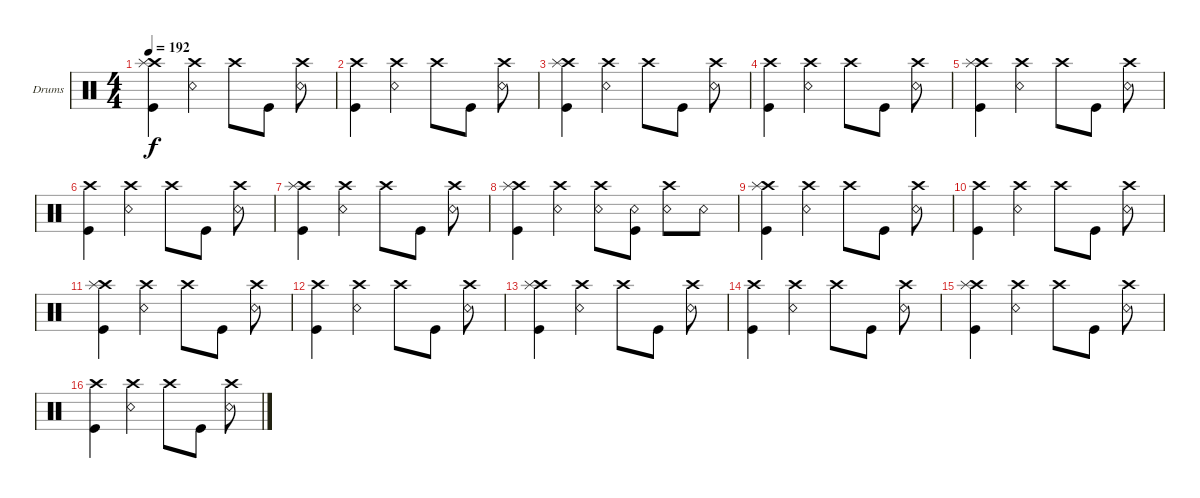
\defaultSystemsLayout 4
\bracketExtendMode groupsimilarinstruments
\firstSystemTrackNameOrientation horizontal
\otherSystemsTrackNameOrientation horizontal
\track ("Drumkit" "Drums") {instrument percussion}
\staff {score}
\articulation defaults
\ts (4 4)
\tempo 192
\clef neutral
\scale
0.333333
\ks c
("Kick (hit)" "Crash high (hit)" "Splash (hit)").4{dy f} ("Snare (rim shot)" "Crash high (hit)").4 "Crash high (hit)".8 "Kick (hit)".8 ("Snare (rim shot)" "Crash high (hit)").8 |
\scale
0.333333 ("Kick (hit)" "Crash high (hit)").4 ("Snare (rim shot)" "Crash high (hit)").4 "Crash high (hit)".8 "Kick (hit)".8 ("Snare (rim shot)" "Crash high (hit)").8 |
\scale
0.333333 ("Kick (hit)" "Crash high (hit)" "Splash (hit)").4 ("Snare (rim shot)" "Crash high (hit)").4 "Crash high (hit)".8 "Kick (hit)".8 ("Snare (rim shot)" "Crash high (hit)").8 |
\scale
0.333333 ("Kick (hit)" "Crash high (hit)").4 ("Snare (rim shot)" "Crash high (hit)").4 "Crash high (hit)".8 "Kick (hit)".8 ("Snare (rim shot)" "Crash high (hit)").8 |
\scale
0.333333 ("Kick (hit)" "Crash high (hit)" "Splash (hit)").4 ("Snare (rim shot)" "Crash high (hit)").4 "Crash high (hit)".8 "Kick (hit)".8 ("Snare (rim shot)" "Crash high (hit)").8 |
\scale
0.333333 ("Kick (hit)" "Crash high (hit)").4 ("Snare (rim shot)" "Crash high (hit)").4 "Crash high (hit)".8 "Kick (hit)".8 ("Snare (rim shot)" "Crash high (hit)").8 |
\scale
0.333333 ("Kick (hit)" "Crash high (hit)" "Splash (hit)").4 ("Snare (rim shot)" "Crash high (hit)").4 "Crash high (hit)".8 "Kick (hit)".8 ("Snare (rim shot)" "Crash high (hit)").8 |
\scale
0.333333 ("Kick (hit)" "Crash high (hit)" "Splash (hit)").4 ("Snare (rim shot)" "Crash high (hit)").4 ("Crash high (hit)" "Snare (rim shot)").8 ("Kick (hit)" "Snare (rim shot)").8 ("Snare (rim shot)" "Crash high (hit)").8 "Snare (rim shot)".8 |
\scale
0.333333 ("Kick (hit)" "Crash high (hit)" "Splash (hit)").4 ("Snare (rim shot)" "Crash high (hit)").4 "Crash high (hit)".8 "Kick (hit)".8 ("Snare (rim shot)" "Crash high (hit)").8 |
\scale
0.333333 ("Kick (hit)" "Crash high (hit)").4 ("Snare (rim shot)" "Crash high (hit)").4 "Crash high (hit)".8 "Kick (hit)".8 ("Snare (rim shot)" "Crash high (hit)").8 |
\scale
0.333333 ("Kick (hit)" "Crash high (hit)" "Splash (hit)").4 ("Snare (rim shot)" "Crash high (hit)").4 "Crash high (hit)".8 "Kick (hit)".8 ("Snare (rim shot)" "Crash high (hit)").8 |
\scale
0.333333 ("Kick (hit)" "Crash high (hit)").4 ("Snare (rim shot)" "Crash high (hit)").4 "Crash high (hit)".8 "Kick (hit)".8 ("Snare (rim shot)" "Crash high (hit)").8 |
\scale
0.333333 ("Kick (hit)" "Crash high (hit)" "Splash (hit)").4 ("Snare (rim shot)" "Crash high (hit)").4 "Crash high (hit)".8 "Kick (hit)".8 ("Snare (rim shot)" "Crash high (hit)").8 |
\scale
0.333333 ("Kick (hit)" "Crash high (hit)").4 ("Snare (rim shot)" "Crash high (hit)").4 "Crash high (hit)".8 "Kick (hit)".8 ("Snare (rim shot)" "Crash high (hit)").8 |
\scale
0.333333 ("Kick (hit)" "Crash high (hit)" "Splash (hit)").4 ("Snare (rim shot)" "Crash high (hit)").4 "Crash high (hit)".8 "Kick (hit)".8 ("Snare (rim shot)" "Crash high (hit)").8 |
\scale
0.333333 ("Kick (hit)" "Crash high (hit)").4 ("Snare (rim shot)" "Crash high (hit)").4 "Crash high (hit)".8 "Kick (hit)".8 ("Snare (rim shot)" "Crash high (hit)").8
